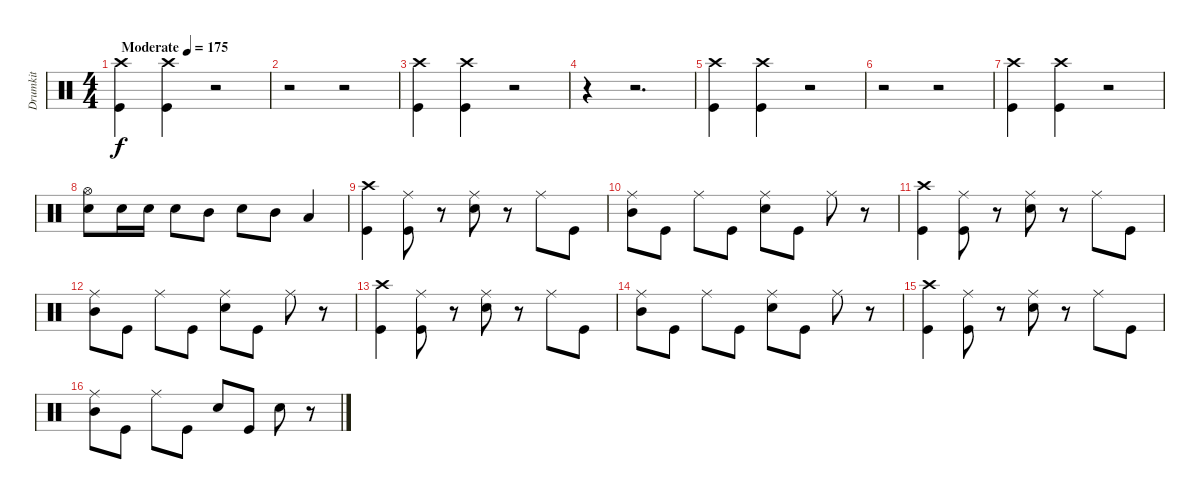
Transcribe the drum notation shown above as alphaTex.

\track ("Drumkit" "Drumkit") {instrument percussion}
\staff {score}
\articulation defaults
\ts (4 4)
\tempo (175 "Moderate")
\clef neutral
\ks c
("Crash high (hit)" "Kick (hit)").4{dy f} ("Crash high (hit)" "Kick (hit)").4 r.2 |
r.2 r.2 |
("Crash high (hit)" "Kick (hit)").4 ("Crash high (hit)" "Kick (hit)").4 r.2 |
r.4 r.2{d} |
("Crash high (hit)" "Kick (hit)").4 ("Crash high (hit)" "Kick (hit)").4 r.2 |
r.2 r.2 |
("Crash high (hit)" "Kick (hit)").4 ("Crash high (hit)" "Kick (hit)").4 r.2 |
("Hi-Hat (open)" "Snare (hit) 2").8 "Snare (hit) 2".16 "Snare (hit) 2".16 "Snare (hit) 2".8 "Mid Tom (hit)".8 "Snare (hit) 2".8 "Mid Tom (hit)".8 "Low Tom (hit)".4 |
("Crash high (hit)" "Kick (hit)").4 ("Ride (middle)" "Kick (hit)").8 r.8 ("Ride (middle)" "Snare (hit) 2").8 r.8 "Ride (middle)".8 "Kick (hit)".8 |
("Ride (middle)" "Mid Tom (hit)").8 "Kick (hit)".8 "Ride (middle)".8 "Kick (hit)".8 ("Ride (middle)" "Snare (hit) 2").8 "Kick (hit)".8 "Ride (middle)".8 r.8 |
("Crash high (hit)" "Kick (hit)").4 ("Ride (middle)" "Kick (hit)").8 r.8 ("Ride (middle)" "Snare (hit) 2").8 r.8 "Ride (middle)".8 "Kick (hit)".8 |
("Ride (middle)" "Mid Tom (hit)").8 "Kick (hit)".8 "Ride (middle)".8 "Kick (hit)".8 ("Ride (middle)" "Snare (hit) 2").8 "Kick (hit)".8 "Ride (middle)".8 r.8 |
("Crash high (hit)" "Kick (hit)").4 ("Ride (middle)" "Kick (hit)").8 r.8 ("Ride (middle)" "Snare (hit) 2").8 r.8 "Ride (middle)".8 "Kick (hit)".8 |
("Ride (middle)" "Mid Tom (hit)").8 "Kick (hit)".8 "Ride (middle)".8 "Kick (hit)".8 ("Ride (middle)" "Snare (hit) 2").8 "Kick (hit)".8 "Ride (middle)".8 r.8 |
("Crash high (hit)" "Kick (hit)").4 ("Ride (middle)" "Kick (hit)").8 r.8 ("Ride (middle)" "Snare (hit) 2").8 r.8 "Ride (middle)".8 "Kick (hit)".8 |
("Ride (middle)" "Mid Tom (hit)").8 "Kick (hit)".8 "Ride (middle)".8 "Kick (hit)".8 "Snare (hit) 2".8 "Kick (hit)".8 "Snare (hit) 2".8 r.8
